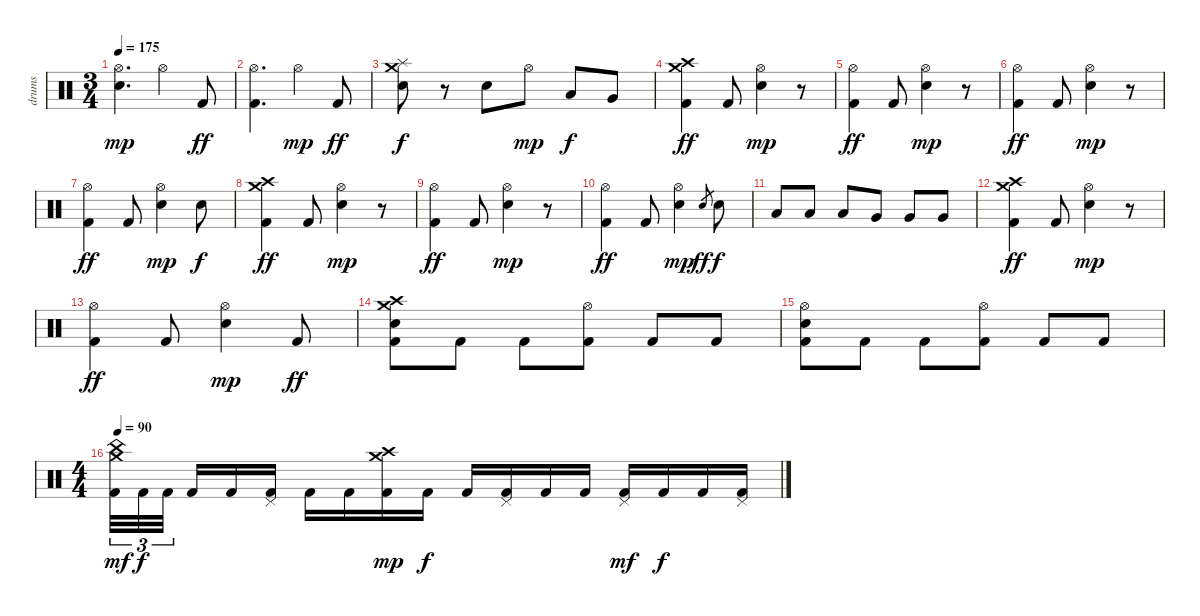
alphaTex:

\track ("drums" "drums") {instrument percussion}
\staff {score}
\articulation defaults
\ts (3 4)
\tempo 175
\clef neutral
\ks c
("Hi-Hat (open)" "Snare (hit) 2").4{d dy mp} "Hi-Hat (open)".4 "Kick (hit) 2".8{dy ff} |
("Hi-Hat (open)" "Kick (hit) 2").4{d} "Hi-Hat (open)".4{dy mp} "Kick (hit) 2".8{dy ff} |
("Splash (hit)" "Crash medium (hit)" "Snare (hit) 2").8{dy f} r.8 "Snare (hit) 2".8 "Hi-Hat (open)".8{dy mp} "Low Tom (hit)".8{dy f} "Very Low Tom (hit)".8 |
("Crash medium (hit)" "Crash high (hit)" "Kick (hit) 2").4{dy ff} "Kick (hit) 2".8 ("Hi-Hat (open)" "Snare (hit) 2").4{dy mp} r.8 |
("Hi-Hat (open)" "Kick (hit) 2").4{dy ff} "Kick (hit) 2".8 ("Hi-Hat (open)" "Snare (hit) 2").4{dy mp} r.8 |
("Hi-Hat (open)" "Kick (hit) 2").4{dy ff} "Kick (hit) 2".8 ("Hi-Hat (open)" "Snare (hit) 2").4{dy mp} r.8 |
("Hi-Hat (open)" "Kick (hit) 2").4{dy ff} "Kick (hit) 2".8 ("Hi-Hat (open)" "Snare (hit) 2").4{dy mp} "Snare (hit) 2".8{dy f} |
("Crash medium (hit)" "Crash high (hit)" "Kick (hit) 2").4{dy ff} "Kick (hit) 2".8 ("Hi-Hat (open)" "Snare (hit) 2").4{dy mp} r.8 |
("Hi-Hat (open)" "Kick (hit) 2").4{dy ff} "Kick (hit) 2".8 ("Hi-Hat (open)" "Snare (hit) 2").4{dy mp} r.8 |
("Hi-Hat (open)" "Kick (hit) 2").4{dy ff} "Kick (hit) 2".8 ("Hi-Hat (open)" "Snare (hit) 2").4{dy mp} "Snare (hit) 2"{h}.8{gr dy ff} "Snare (hit) 2".8{dy f} |
"Low Tom (hit)".8 "Low Tom (hit)".8 "Low Tom (hit)".8 "Very Low Tom (hit)".8 "Very Low Tom (hit)".8 "Very Low Tom (hit)".8 |
("Crash medium (hit)" "Crash high (hit)" "Kick (hit) 2").4{dy ff} "Kick (hit) 2".8 ("Hi-Hat (open)" "Snare (hit) 2").4{dy mp} r.8 |
("Hi-Hat (open)" "Kick (hit) 2").4{dy ff} "Kick (hit) 2".8 ("Hi-Hat (open)" "Snare (hit) 2").4{dy mp} "Kick (hit) 2".8{dy ff} |
("Crash medium (hit)" "Crash high (hit)" "Snare (hit) 2" "Kick (hit) 2").8 "Kick (hit) 2".8 "Kick (hit) 2".8 ("Hi-Hat (open)" "Kick (hit) 2").8 "Kick (hit) 2".8 "Kick (hit) 2".8 |
("Hi-Hat (open)" "Snare (hit) 2" "Kick (hit) 2").8 "Kick (hit) 2".8 "Kick (hit) 2".8 ("Hi-Hat (open)" "Kick (hit) 2").8 "Kick (hit) 2".8 "Kick (hit) 2".8 |
\ts (4 4)
\tempo 90
("China (hit)" "Crash medium (hit)" "Kick (hit) 2").32{tu (3 2) dy mf} "Kick (hit) 2".32{tu (3 2) dy f} "Kick (hit) 2".32{tu (3 2) beam splitsecondary} "Kick (hit) 2".16 "Kick (hit) 2".16 ("Pedal Hi-Hat (hit)" "Kick (hit) 2").16 "Kick (hit) 2".16 "Kick (hit) 2".16 ("Crash medium (hit)" "Crash high (hit)" "Kick (hit) 2").16{dy mp} "Kick (hit) 2".16{dy f} "Kick (hit) 2".16 ("Pedal Hi-Hat (hit)" "Kick (hit) 2").16 "Kick (hit) 2".16 "Kick (hit) 2".16 ("Pedal Hi-Hat (hit)" "Kick (hit) 2").16{dy mf} "Kick (hit) 2".16{dy f} "Kick (hit) 2".16 ("Pedal Hi-Hat (hit)" "Kick (hit) 2").16
